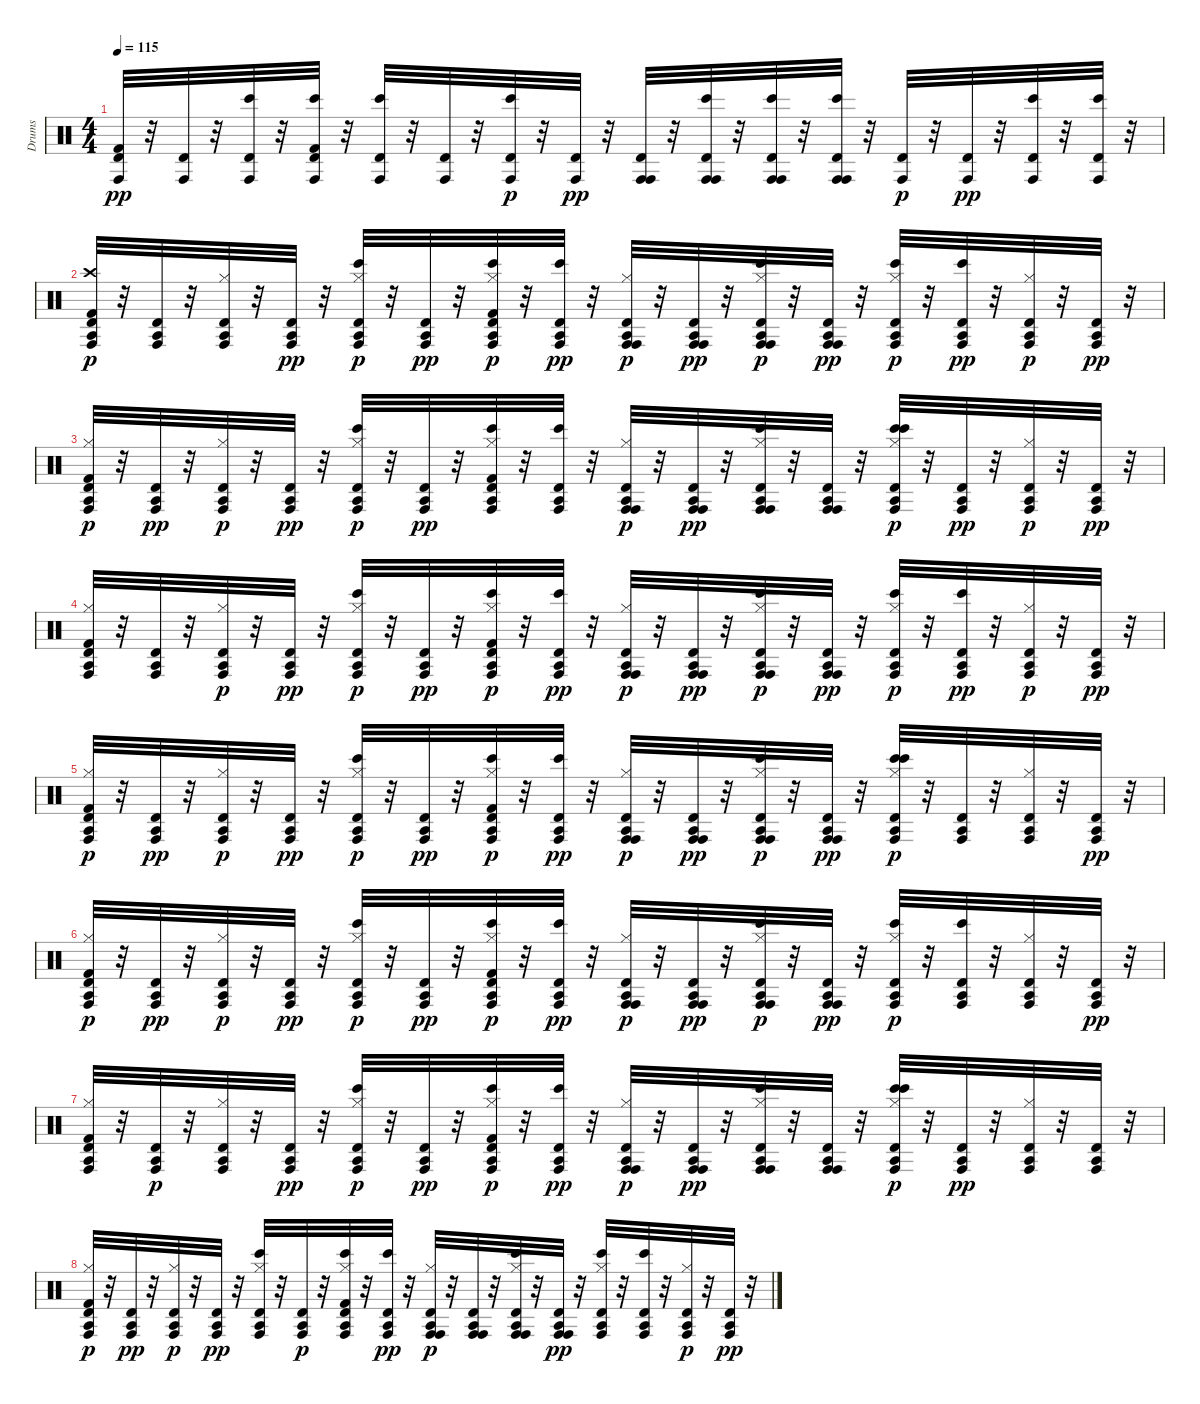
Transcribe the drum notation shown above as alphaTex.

\track ("Drums" "Drums") {instrument percussion}
\staff {score}
\articulation defaults
\ts (4 4)
\tempo 115
\clef neutral
\ks c
("Conga high (hit)" "Kick (hit) 2" "Timbale high (hit)").32{dy pp} r.32 ("Conga high (hit)" "Timbale high (hit)").32 r.32 ("Conga high (hit)" "Bongo High (hit)" "Timbale high (hit)").32 r.32 ("Conga high (hit)" "Bongo High (hit)" "Kick (hit) 2" "Timbale high (hit)").32 r.32 ("Conga high (hit)" "Bongo High (hit)" "Timbale high (hit)").32 r.32 ("Conga high (hit)" "Timbale high (hit)").32 r.32 ("Conga high (hit)" "Bongo High (hit)" "Timbale high (hit)").32{dy p} r.32 ("Conga high (hit)" "Timbale high (hit)").32{dy pp} r.32 ("Conga high (hit)" "Conga high (hit)" "Timbale high (hit)").32 r.32 ("Conga high (hit)" "Conga high (hit)" "Bongo High (hit)" "Timbale high (hit)").32 r.32 ("Conga high (hit)" "Conga high (hit)" "Bongo High (hit)" "Timbale high (hit)").32 r.32 ("Conga high (hit)" "Conga high (hit)" "Bongo High (hit)" "Timbale high (hit)").32 r.32 ("Conga high (hit)" "Timbale high (hit)").32{dy p} r.32 ("Conga high (hit)" "Timbale high (hit)").32{dy pp} r.32 ("Conga high (hit)" "Bongo High (hit)" "Timbale high (hit)").32 r.32 ("Conga high (hit)" "Bongo High (hit)" "Timbale high (hit)").32 r.32 |
("Conga high (hit)" "Agogo tow (hit)" "Crash high (hit)" "Kick (hit) 2" "Timbale high (hit)").32{dy p} r.32 ("Conga high (hit)" "Agogo tow (hit)" "Timbale high (hit)").32 r.32 ("Conga high (hit)" "Agogo tow (hit)" "Hi-Hat (closed)" "Timbale high (hit)").32 r.32 ("Conga high (hit)" "Agogo tow (hit)" "Timbale high (hit)").32{dy pp} r.32 ("Conga high (hit)" "Agogo tow (hit)" "Bongo High (hit)" "Hi-Hat (closed)" "Timbale high (hit)").32{dy p} r.32 ("Conga high (hit)" "Agogo tow (hit)" "Timbale high (hit)").32{dy pp} r.32 ("Conga high (hit)" "Agogo tow (hit)" "Bongo High (hit)" "Hi-Hat (closed)" "Kick (hit) 2" "Timbale high (hit)").32{dy p} r.32 ("Conga high (hit)" "Agogo tow (hit)" "Bongo High (hit)" "Timbale high (hit)").32{dy pp} r.32 ("Conga high (hit)" "Conga high (hit)" "Agogo tow (hit)" "Hi-Hat (closed)" "Timbale high (hit)").32{dy p} r.32 ("Conga high (hit)" "Conga high (hit)" "Agogo tow (hit)" "Timbale high (hit)").32{dy pp} r.32 ("Conga high (hit)" "Conga high (hit)" "Agogo tow (hit)" "Bongo High (hit)" "Hi-Hat (closed)" "Timbale high (hit)").32{dy p} r.32 ("Conga high (hit)" "Conga high (hit)" "Agogo tow (hit)" "Timbale high (hit)").32{dy pp} r.32 ("Conga high (hit)" "Agogo tow (hit)" "Bongo High (hit)" "Hi-Hat (closed)" "Timbale high (hit)").32{dy p} r.32 ("Conga high (hit)" "Agogo tow (hit)" "Bongo High (hit)" "Timbale high (hit)").32{dy pp} r.32 ("Conga high (hit)" "Agogo tow (hit)" "Hi-Hat (closed)" "Timbale high (hit)").32{dy p} r.32 ("Conga high (hit)" "Agogo tow (hit)" "Timbale high (hit)").32{dy pp} r.32 |
("Conga high (hit)" "Agogo tow (hit)" "Hi-Hat (closed)" "Kick (hit) 2" "Timbale high (hit)").32{dy p} r.32 ("Conga high (hit)" "Agogo tow (hit)" "Timbale high (hit)").32{dy pp} r.32 ("Conga high (hit)" "Agogo tow (hit)" "Hi-Hat (closed)" "Timbale high (hit)").32{dy p} r.32 ("Conga high (hit)" "Agogo tow (hit)" "Timbale high (hit)").32{dy pp} r.32 ("Conga high (hit)" "Agogo tow (hit)" "Bongo High (hit)" "Hi-Hat (closed)" "Timbale high (hit)").32{dy p} r.32 ("Conga high (hit)" "Agogo tow (hit)" "Timbale high (hit)").32{dy pp} r.32 ("Conga high (hit)" "Agogo tow (hit)" "Bongo High (hit)" "Hi-Hat (closed)" "Kick (hit) 2" "Timbale high (hit)").32 r.32 ("Conga high (hit)" "Agogo tow (hit)" "Bongo High (hit)" "Timbale high (hit)").32 r.32 ("Conga high (hit)" "Conga high (hit)" "Agogo tow (hit)" "Hi-Hat (closed)" "Timbale high (hit)").32{dy p} r.32 ("Conga high (hit)" "Conga high (hit)" "Agogo tow (hit)" "Timbale high (hit)").32{dy pp} r.32 ("Conga high (hit)" "Conga high (hit)" "Agogo tow (hit)" "Bongo High (hit)" "Hi-Hat (closed)" "Timbale high (hit)").32 r.32 ("Conga high (hit)" "Conga high (hit)" "Agogo tow (hit)" "Timbale high (hit)").32 r.32 ("Conga high (hit)" "Agogo tow (hit)" "Bongo High (hit)" "Bongo High (hit)" "Hi-Hat (closed)" "Timbale high (hit)").32{dy p} r.32 ("Conga high (hit)" "Agogo tow (hit)" "Timbale high (hit)").32{dy pp} r.32 ("Conga high (hit)" "Agogo tow (hit)" "Hi-Hat (closed)" "Timbale high (hit)").32{dy p} r.32 ("Conga high (hit)" "Agogo tow (hit)" "Timbale high (hit)").32{dy pp} r.32 |
("Conga high (hit)" "Agogo tow (hit)" "Hi-Hat (closed)" "Kick (hit) 2" "Timbale high (hit)").32 r.32 ("Conga high (hit)" "Agogo tow (hit)" "Timbale high (hit)").32 r.32 ("Conga high (hit)" "Agogo tow (hit)" "Hi-Hat (closed)" "Timbale high (hit)").32{dy p} r.32 ("Conga high (hit)" "Agogo tow (hit)" "Timbale high (hit)").32{dy pp} r.32 ("Conga high (hit)" "Agogo tow (hit)" "Bongo High (hit)" "Hi-Hat (closed)" "Timbale high (hit)").32{dy p} r.32 ("Conga high (hit)" "Agogo tow (hit)" "Timbale high (hit)").32{dy pp} r.32 ("Conga high (hit)" "Agogo tow (hit)" "Bongo High (hit)" "Hi-Hat (closed)" "Kick (hit) 2" "Timbale high (hit)").32{dy p} r.32 ("Conga high (hit)" "Agogo tow (hit)" "Bongo High (hit)" "Timbale high (hit)").32{dy pp} r.32 ("Conga high (hit)" "Conga high (hit)" "Agogo tow (hit)" "Hi-Hat (closed)" "Timbale high (hit)").32{dy p} r.32 ("Conga high (hit)" "Conga high (hit)" "Agogo tow (hit)" "Timbale high (hit)").32{dy pp} r.32 ("Conga high (hit)" "Conga high (hit)" "Agogo tow (hit)" "Bongo High (hit)" "Hi-Hat (closed)" "Timbale high (hit)").32{dy p} r.32 ("Conga high (hit)" "Conga high (hit)" "Agogo tow (hit)" "Timbale high (hit)").32{dy pp} r.32 ("Conga high (hit)" "Agogo tow (hit)" "Bongo High (hit)" "Hi-Hat (closed)" "Timbale high (hit)").32{dy p} r.32 ("Conga high (hit)" "Agogo tow (hit)" "Bongo High (hit)" "Timbale high (hit)").32{dy pp} r.32 ("Conga high (hit)" "Agogo tow (hit)" "Hi-Hat (closed)" "Timbale high (hit)").32{dy p} r.32 ("Conga high (hit)" "Agogo tow (hit)" "Timbale high (hit)").32{dy pp} r.32 |
("Conga high (hit)" "Agogo tow (hit)" "Hi-Hat (closed)" "Kick (hit) 2" "Timbale high (hit)").32{dy p} r.32 ("Conga high (hit)" "Agogo tow (hit)" "Timbale high (hit)").32{dy pp} r.32 ("Conga high (hit)" "Agogo tow (hit)" "Hi-Hat (closed)" "Timbale high (hit)").32{dy p} r.32 ("Conga high (hit)" "Agogo tow (hit)" "Timbale high (hit)").32{dy pp} r.32 ("Conga high (hit)" "Agogo tow (hit)" "Bongo High (hit)" "Hi-Hat (closed)" "Timbale high (hit)").32{dy p} r.32 ("Conga high (hit)" "Agogo tow (hit)" "Timbale high (hit)").32{dy pp} r.32 ("Conga high (hit)" "Agogo tow (hit)" "Bongo High (hit)" "Hi-Hat (closed)" "Kick (hit) 2" "Timbale high (hit)").32{dy p} r.32 ("Conga high (hit)" "Agogo tow (hit)" "Bongo High (hit)" "Timbale high (hit)").32{dy pp} r.32 ("Conga high (hit)" "Conga high (hit)" "Agogo tow (hit)" "Hi-Hat (closed)" "Timbale high (hit)").32{dy p} r.32 ("Conga high (hit)" "Conga high (hit)" "Agogo tow (hit)" "Timbale high (hit)").32{dy pp} r.32 ("Conga high (hit)" "Conga high (hit)" "Agogo tow (hit)" "Bongo High (hit)" "Hi-Hat (closed)" "Timbale high (hit)").32{dy p} r.32 ("Conga high (hit)" "Conga high (hit)" "Agogo tow (hit)" "Timbale high (hit)").32{dy pp} r.32 ("Conga high (hit)" "Agogo tow (hit)" "Bongo High (hit)" "Bongo High (hit)" "Hi-Hat (closed)" "Timbale high (hit)").32{dy p} r.32 ("Conga high (hit)" "Agogo tow (hit)" "Timbale high (hit)").32 r.32 ("Conga high (hit)" "Agogo tow (hit)" "Hi-Hat (closed)" "Timbale high (hit)").32 r.32 ("Conga high (hit)" "Agogo tow (hit)" "Timbale high (hit)").32{dy pp} r.32 |
("Conga high (hit)" "Agogo tow (hit)" "Hi-Hat (closed)" "Kick (hit) 2" "Timbale high (hit)").32{dy p} r.32 ("Conga high (hit)" "Agogo tow (hit)" "Timbale high (hit)").32{dy pp} r.32 ("Conga high (hit)" "Agogo tow (hit)" "Hi-Hat (closed)" "Timbale high (hit)").32{dy p} r.32 ("Conga high (hit)" "Agogo tow (hit)" "Timbale high (hit)").32{dy pp} r.32 ("Conga high (hit)" "Agogo tow (hit)" "Bongo High (hit)" "Hi-Hat (closed)" "Timbale high (hit)").32{dy p} r.32 ("Conga high (hit)" "Agogo tow (hit)" "Timbale high (hit)").32{dy pp} r.32 ("Conga high (hit)" "Agogo tow (hit)" "Bongo High (hit)" "Hi-Hat (closed)" "Kick (hit) 2" "Timbale high (hit)").32{dy p} r.32 ("Conga high (hit)" "Agogo tow (hit)" "Bongo High (hit)" "Timbale high (hit)").32{dy pp} r.32 ("Conga high (hit)" "Conga high (hit)" "Agogo tow (hit)" "Hi-Hat (closed)" "Timbale high (hit)").32{dy p} r.32 ("Conga high (hit)" "Conga high (hit)" "Agogo tow (hit)" "Timbale high (hit)").32{dy pp} r.32 ("Conga high (hit)" "Conga high (hit)" "Agogo tow (hit)" "Bongo High (hit)" "Hi-Hat (closed)" "Timbale high (hit)").32{dy p} r.32 ("Conga high (hit)" "Conga high (hit)" "Agogo tow (hit)" "Timbale high (hit)").32{dy pp} r.32 ("Conga high (hit)" "Agogo tow (hit)" "Bongo High (hit)" "Hi-Hat (closed)" "Timbale high (hit)").32{dy p} r.32 ("Conga high (hit)" "Agogo tow (hit)" "Bongo High (hit)" "Timbale high (hit)").32 r.32 ("Conga high (hit)" "Agogo tow (hit)" "Hi-Hat (closed)" "Timbale high (hit)").32 r.32 ("Conga high (hit)" "Agogo tow (hit)" "Timbale high (hit)").32{dy pp} r.32 |
("Conga high (hit)" "Agogo tow (hit)" "Hi-Hat (closed)" "Kick (hit) 2" "Timbale high (hit)").32 r.32 ("Conga high (hit)" "Agogo tow (hit)" "Timbale high (hit)").32{dy p} r.32 ("Conga high (hit)" "Agogo tow (hit)" "Hi-Hat (closed)" "Timbale high (hit)").32 r.32 ("Conga high (hit)" "Agogo tow (hit)" "Timbale high (hit)").32{dy pp} r.32 ("Conga high (hit)" "Agogo tow (hit)" "Bongo High (hit)" "Hi-Hat (closed)" "Timbale high (hit)").32{dy p} r.32 ("Conga high (hit)" "Agogo tow (hit)" "Timbale high (hit)").32{dy pp} r.32 ("Conga high (hit)" "Agogo tow (hit)" "Bongo High (hit)" "Hi-Hat (closed)" "Kick (hit) 2" "Timbale high (hit)").32{dy p} r.32 ("Conga high (hit)" "Agogo tow (hit)" "Bongo High (hit)" "Timbale high (hit)").32{dy pp} r.32 ("Conga high (hit)" "Conga high (hit)" "Agogo tow (hit)" "Hi-Hat (closed)" "Timbale high (hit)").32{dy p} r.32 ("Conga high (hit)" "Conga high (hit)" "Agogo tow (hit)" "Timbale high (hit)").32{dy pp} r.32 ("Conga high (hit)" "Conga high (hit)" "Agogo tow (hit)" "Bongo High (hit)" "Hi-Hat (closed)" "Timbale high (hit)").32 r.32 ("Conga high (hit)" "Conga high (hit)" "Agogo tow (hit)" "Timbale high (hit)").32 r.32 ("Conga high (hit)" "Agogo tow (hit)" "Bongo High (hit)" "Bongo High (hit)" "Hi-Hat (closed)" "Timbale high (hit)").32{dy p} r.32 ("Conga high (hit)" "Agogo tow (hit)" "Timbale high (hit)").32{dy pp} r.32 ("Conga high (hit)" "Agogo tow (hit)" "Hi-Hat (closed)" "Timbale high (hit)").32 r.32 ("Conga high (hit)" "Agogo tow (hit)" "Timbale high (hit)").32 r.32 |
("Conga high (hit)" "Agogo tow (hit)" "Hi-Hat (closed)" "Kick (hit) 2" "Timbale high (hit)").32{dy p} r.32 ("Conga high (hit)" "Agogo tow (hit)" "Timbale high (hit)").32{dy pp} r.32 ("Conga high (hit)" "Agogo tow (hit)" "Hi-Hat (closed)" "Timbale high (hit)").32{dy p} r.32 ("Conga high (hit)" "Agogo tow (hit)" "Timbale high (hit)").32{dy pp} r.32 ("Conga high (hit)" "Agogo tow (hit)" "Bongo High (hit)" "Hi-Hat (closed)" "Timbale high (hit)").32 r.32 ("Conga high (hit)" "Agogo tow (hit)" "Timbale high (hit)").32{dy p} r.32 ("Conga high (hit)" "Agogo tow (hit)" "Bongo High (hit)" "Hi-Hat (closed)" "Kick (hit) 2" "Timbale high (hit)").32 r.32 ("Conga high (hit)" "Agogo tow (hit)" "Bongo High (hit)" "Timbale high (hit)").32{dy pp} r.32 ("Conga high (hit)" "Conga high (hit)" "Agogo tow (hit)" "Hi-Hat (closed)" "Timbale high (hit)").32{dy p} r.32 ("Conga high (hit)" "Conga high (hit)" "Agogo tow (hit)" "Timbale high (hit)").32 r.32 ("Conga high (hit)" "Conga high (hit)" "Agogo tow (hit)" "Bongo High (hit)" "Hi-Hat (closed)" "Timbale high (hit)").32 r.32 ("Conga high (hit)" "Conga high (hit)" "Agogo tow (hit)" "Timbale high (hit)").32{dy pp} r.32 ("Conga high (hit)" "Agogo tow (hit)" "Bongo High (hit)" "Hi-Hat (closed)" "Timbale high (hit)").32 r.32 ("Conga high (hit)" "Agogo tow (hit)" "Bongo High (hit)" "Timbale high (hit)").32 r.32 ("Conga high (hit)" "Agogo tow (hit)" "Hi-Hat (closed)" "Timbale high (hit)").32{dy p} r.32 ("Conga high (hit)" "Agogo tow (hit)" "Timbale high (hit)").32{dy pp} r.32
